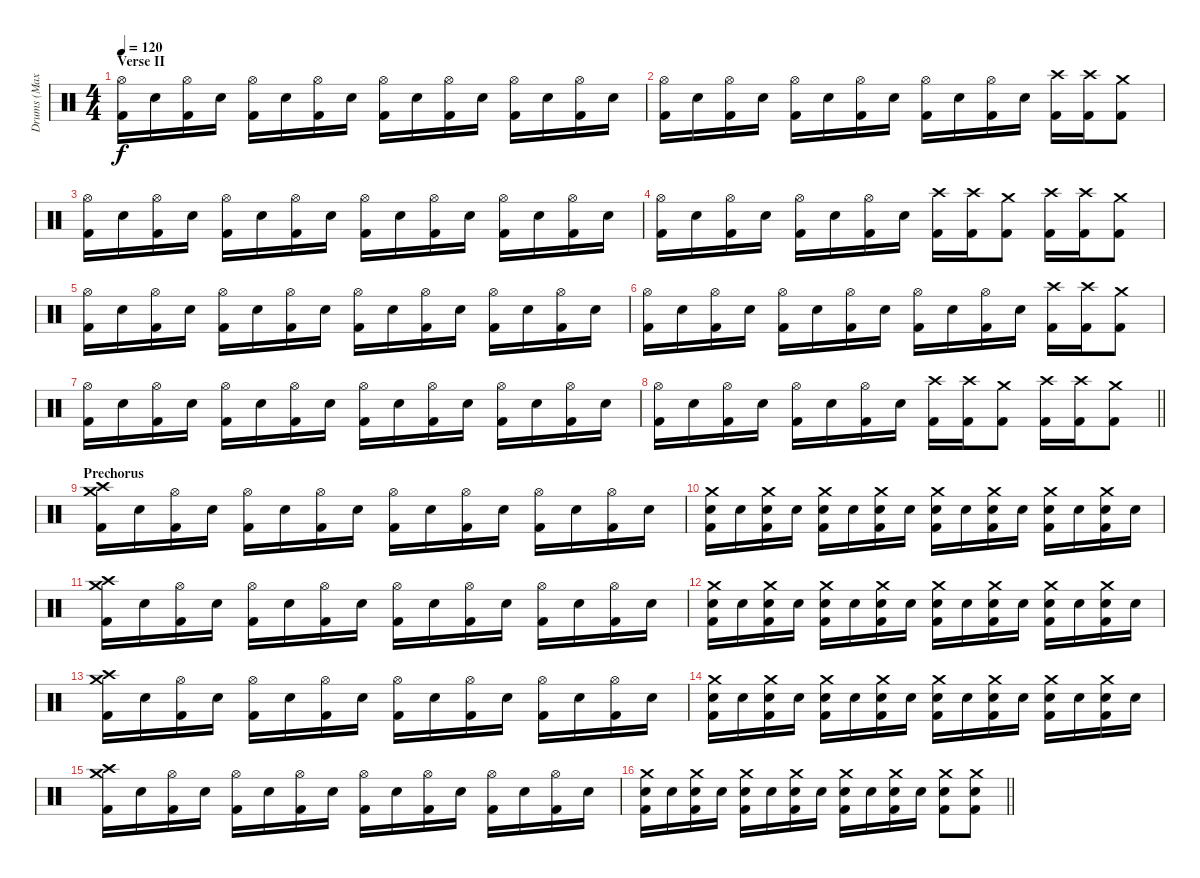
\track ("Drums (Max Duhamel)" "Drums (Max") {instrument percussion}
\staff {score}
\articulation defaults
\ts (4 4)
\section ("" "Verse II")
\tempo 120
\clef neutral
\ks c
("Hi-Hat (open)" "Kick (hit) 2").16{dy f} "Electric Snare (hit)".16 ("Hi-Hat (open)" "Kick (hit) 2").16 "Electric Snare (hit)".16 ("Hi-Hat (open)" "Kick (hit) 2").16 "Electric Snare (hit)".16 ("Hi-Hat (open)" "Kick (hit) 2").16 "Electric Snare (hit)".16 ("Hi-Hat (open)" "Kick (hit) 2").16 "Electric Snare (hit)".16 ("Hi-Hat (open)" "Kick (hit) 2").16 "Electric Snare (hit)".16 ("Hi-Hat (open)" "Kick (hit) 2").16 "Electric Snare (hit)".16 ("Hi-Hat (open)" "Kick (hit) 2").16 "Electric Snare (hit)".16 |
("Hi-Hat (open)" "Kick (hit) 2").16 "Electric Snare (hit)".16 ("Hi-Hat (open)" "Kick (hit) 2").16 "Electric Snare (hit)".16 ("Hi-Hat (open)" "Kick (hit) 2").16 "Electric Snare (hit)".16 ("Hi-Hat (open)" "Kick (hit) 2").16 "Electric Snare (hit)".16 ("Hi-Hat (open)" "Kick (hit) 2").16 "Electric Snare (hit)".16 ("Hi-Hat (open)" "Kick (hit) 2").16 "Electric Snare (hit)".16 ("Crash high (hit)" "Kick (hit) 2").16 ("Crash high (hit)" "Kick (hit) 2").16 ("Crash medium (hit)" "Kick (hit) 2").8 |
("Hi-Hat (open)" "Kick (hit) 2").16 "Electric Snare (hit)".16 ("Hi-Hat (open)" "Kick (hit) 2").16 "Electric Snare (hit)".16 ("Hi-Hat (open)" "Kick (hit) 2").16 "Electric Snare (hit)".16 ("Hi-Hat (open)" "Kick (hit) 2").16 "Electric Snare (hit)".16 ("Hi-Hat (open)" "Kick (hit) 2").16 "Electric Snare (hit)".16 ("Hi-Hat (open)" "Kick (hit) 2").16 "Electric Snare (hit)".16 ("Hi-Hat (open)" "Kick (hit) 2").16 "Electric Snare (hit)".16 ("Hi-Hat (open)" "Kick (hit) 2").16 "Electric Snare (hit)".16 |
("Hi-Hat (open)" "Kick (hit) 2").16 "Electric Snare (hit)".16 ("Hi-Hat (open)" "Kick (hit) 2").16 "Electric Snare (hit)".16 ("Hi-Hat (open)" "Kick (hit) 2").16 "Electric Snare (hit)".16 ("Hi-Hat (open)" "Kick (hit) 2").16 "Electric Snare (hit)".16 ("Crash high (hit)" "Kick (hit) 2").16 ("Crash high (hit)" "Kick (hit) 2").16 ("Crash medium (hit)" "Kick (hit) 2").8 ("Crash high (hit)" "Kick (hit) 2").16 ("Crash high (hit)" "Kick (hit) 2").16 ("Crash medium (hit)" "Kick (hit) 2").8 |
("Hi-Hat (open)" "Kick (hit) 2").16 "Electric Snare (hit)".16 ("Hi-Hat (open)" "Kick (hit) 2").16 "Electric Snare (hit)".16 ("Hi-Hat (open)" "Kick (hit) 2").16 "Electric Snare (hit)".16 ("Hi-Hat (open)" "Kick (hit) 2").16 "Electric Snare (hit)".16 ("Hi-Hat (open)" "Kick (hit) 2").16 "Electric Snare (hit)".16 ("Hi-Hat (open)" "Kick (hit) 2").16 "Electric Snare (hit)".16 ("Hi-Hat (open)" "Kick (hit) 2").16 "Electric Snare (hit)".16 ("Hi-Hat (open)" "Kick (hit) 2").16 "Electric Snare (hit)".16 |
("Hi-Hat (open)" "Kick (hit) 2").16 "Electric Snare (hit)".16 ("Hi-Hat (open)" "Kick (hit) 2").16 "Electric Snare (hit)".16 ("Hi-Hat (open)" "Kick (hit) 2").16 "Electric Snare (hit)".16 ("Hi-Hat (open)" "Kick (hit) 2").16 "Electric Snare (hit)".16 ("Hi-Hat (open)" "Kick (hit) 2").16 "Electric Snare (hit)".16 ("Hi-Hat (open)" "Kick (hit) 2").16 "Electric Snare (hit)".16 ("Crash high (hit)" "Kick (hit) 2").16 ("Crash high (hit)" "Kick (hit) 2").16 ("Crash medium (hit)" "Kick (hit) 2").8 |
("Hi-Hat (open)" "Kick (hit) 2").16 "Electric Snare (hit)".16 ("Hi-Hat (open)" "Kick (hit) 2").16 "Electric Snare (hit)".16 ("Hi-Hat (open)" "Kick (hit) 2").16 "Electric Snare (hit)".16 ("Hi-Hat (open)" "Kick (hit) 2").16 "Electric Snare (hit)".16 ("Hi-Hat (open)" "Kick (hit) 2").16 "Electric Snare (hit)".16 ("Hi-Hat (open)" "Kick (hit) 2").16 "Electric Snare (hit)".16 ("Hi-Hat (open)" "Kick (hit) 2").16 "Electric Snare (hit)".16 ("Hi-Hat (open)" "Kick (hit) 2").16 "Electric Snare (hit)".16 |
\barLineRight lightlight
("Hi-Hat (open)" "Kick (hit) 2").16 "Electric Snare (hit)".16 ("Hi-Hat (open)" "Kick (hit) 2").16 "Electric Snare (hit)".16 ("Hi-Hat (open)" "Kick (hit) 2").16 "Electric Snare (hit)".16 ("Hi-Hat (open)" "Kick (hit) 2").16 "Electric Snare (hit)".16 ("Crash high (hit)" "Kick (hit) 2").16 ("Crash high (hit)" "Kick (hit) 2").16 ("Crash medium (hit)" "Kick (hit) 2").8 ("Crash high (hit)" "Kick (hit) 2").16 ("Crash high (hit)" "Kick (hit) 2").16 ("Crash medium (hit)" "Kick (hit) 2").8 |
\section ("" "Prechorus")
("Crash medium (hit)" "Crash high (hit)" "Kick (hit) 2").16 "Electric Snare (hit)".16 ("Hi-Hat (open)" "Kick (hit) 2").16 "Electric Snare (hit)".16 ("Hi-Hat (open)" "Kick (hit) 2").16 "Electric Snare (hit)".16 ("Hi-Hat (open)" "Kick (hit) 2").16 "Electric Snare (hit)".16 ("Hi-Hat (open)" "Kick (hit) 2").16 "Electric Snare (hit)".16 ("Hi-Hat (open)" "Kick (hit) 2").16 "Electric Snare (hit)".16 ("Hi-Hat (open)" "Kick (hit) 2").16 "Electric Snare (hit)".16 ("Hi-Hat (open)" "Kick (hit) 2").16 "Electric Snare (hit)".16 |
("Crash medium (hit)" "Electric Snare (hit)" "Kick (hit) 2").16 "Electric Snare (hit)".16 ("Crash medium (hit)" "Electric Snare (hit)" "Kick (hit) 2").16 "Electric Snare (hit)".16 ("Crash medium (hit)" "Electric Snare (hit)" "Kick (hit) 2").16 "Electric Snare (hit)".16 ("Crash medium (hit)" "Electric Snare (hit)" "Kick (hit) 2").16 "Electric Snare (hit)".16 ("Crash medium (hit)" "Electric Snare (hit)" "Kick (hit) 2").16 "Electric Snare (hit)".16 ("Crash medium (hit)" "Electric Snare (hit)" "Kick (hit) 2").16 "Electric Snare (hit)".16 ("Crash medium (hit)" "Electric Snare (hit)" "Kick (hit) 2").16 "Electric Snare (hit)".16 ("Crash medium (hit)" "Electric Snare (hit)" "Kick (hit) 2").16 "Electric Snare (hit)".16 |
("Crash medium (hit)" "Crash high (hit)" "Kick (hit) 2").16 "Electric Snare (hit)".16 ("Hi-Hat (open)" "Kick (hit) 2").16 "Electric Snare (hit)".16 ("Hi-Hat (open)" "Kick (hit) 2").16 "Electric Snare (hit)".16 ("Hi-Hat (open)" "Kick (hit) 2").16 "Electric Snare (hit)".16 ("Hi-Hat (open)" "Kick (hit) 2").16 "Electric Snare (hit)".16 ("Hi-Hat (open)" "Kick (hit) 2").16 "Electric Snare (hit)".16 ("Hi-Hat (open)" "Kick (hit) 2").16 "Electric Snare (hit)".16 ("Hi-Hat (open)" "Kick (hit) 2").16 "Electric Snare (hit)".16 |
("Crash medium (hit)" "Electric Snare (hit)" "Kick (hit) 2").16 "Electric Snare (hit)".16 ("Crash medium (hit)" "Electric Snare (hit)" "Kick (hit) 2").16 "Electric Snare (hit)".16 ("Crash medium (hit)" "Electric Snare (hit)" "Kick (hit) 2").16 "Electric Snare (hit)".16 ("Crash medium (hit)" "Electric Snare (hit)" "Kick (hit) 2").16 "Electric Snare (hit)".16 ("Crash medium (hit)" "Electric Snare (hit)" "Kick (hit) 2").16 "Electric Snare (hit)".16 ("Crash medium (hit)" "Electric Snare (hit)" "Kick (hit) 2").16 "Electric Snare (hit)".16 ("Crash medium (hit)" "Electric Snare (hit)" "Kick (hit) 2").16 "Electric Snare (hit)".16 ("Crash medium (hit)" "Electric Snare (hit)" "Kick (hit) 2").16 "Electric Snare (hit)".16 |
("Crash medium (hit)" "Crash high (hit)" "Kick (hit) 2").16 "Electric Snare (hit)".16 ("Hi-Hat (open)" "Kick (hit) 2").16 "Electric Snare (hit)".16 ("Hi-Hat (open)" "Kick (hit) 2").16 "Electric Snare (hit)".16 ("Hi-Hat (open)" "Kick (hit) 2").16 "Electric Snare (hit)".16 ("Hi-Hat (open)" "Kick (hit) 2").16 "Electric Snare (hit)".16 ("Hi-Hat (open)" "Kick (hit) 2").16 "Electric Snare (hit)".16 ("Hi-Hat (open)" "Kick (hit) 2").16 "Electric Snare (hit)".16 ("Hi-Hat (open)" "Kick (hit) 2").16 "Electric Snare (hit)".16 |
("Crash medium (hit)" "Electric Snare (hit)" "Kick (hit) 2").16 "Electric Snare (hit)".16 ("Crash medium (hit)" "Electric Snare (hit)" "Kick (hit) 2").16 "Electric Snare (hit)".16 ("Crash medium (hit)" "Electric Snare (hit)" "Kick (hit) 2").16 "Electric Snare (hit)".16 ("Crash medium (hit)" "Electric Snare (hit)" "Kick (hit) 2").16 "Electric Snare (hit)".16 ("Crash medium (hit)" "Electric Snare (hit)" "Kick (hit) 2").16 "Electric Snare (hit)".16 ("Crash medium (hit)" "Electric Snare (hit)" "Kick (hit) 2").16 "Electric Snare (hit)".16 ("Crash medium (hit)" "Electric Snare (hit)" "Kick (hit) 2").16 "Electric Snare (hit)".16 ("Crash medium (hit)" "Electric Snare (hit)" "Kick (hit) 2").16 "Electric Snare (hit)".16 |
("Crash medium (hit)" "Crash high (hit)" "Kick (hit) 2").16 "Electric Snare (hit)".16 ("Hi-Hat (open)" "Kick (hit) 2").16 "Electric Snare (hit)".16 ("Hi-Hat (open)" "Kick (hit) 2").16 "Electric Snare (hit)".16 ("Hi-Hat (open)" "Kick (hit) 2").16 "Electric Snare (hit)".16 ("Hi-Hat (open)" "Kick (hit) 2").16 "Electric Snare (hit)".16 ("Hi-Hat (open)" "Kick (hit) 2").16 "Electric Snare (hit)".16 ("Hi-Hat (open)" "Kick (hit) 2").16 "Electric Snare (hit)".16 ("Hi-Hat (open)" "Kick (hit) 2").16 "Electric Snare (hit)".16 |
\barLineRight lightlight
("Crash medium (hit)" "Electric Snare (hit)" "Kick (hit) 2").16 "Electric Snare (hit)".16 ("Crash medium (hit)" "Electric Snare (hit)" "Kick (hit) 2").16 "Electric Snare (hit)".16 ("Crash medium (hit)" "Electric Snare (hit)" "Kick (hit) 2").16 "Electric Snare (hit)".16 ("Crash medium (hit)" "Electric Snare (hit)" "Kick (hit) 2").16 "Electric Snare (hit)".16 ("Crash medium (hit)" "Electric Snare (hit)" "Kick (hit) 2").16 "Electric Snare (hit)".16 ("Crash medium (hit)" "Electric Snare (hit)" "Kick (hit) 2").16 "Electric Snare (hit)".16 ("Crash medium (hit)" "Electric Snare (hit)" "Kick (hit) 2").8 ("Crash medium (hit)" "Electric Snare (hit)" "Kick (hit) 2").8
